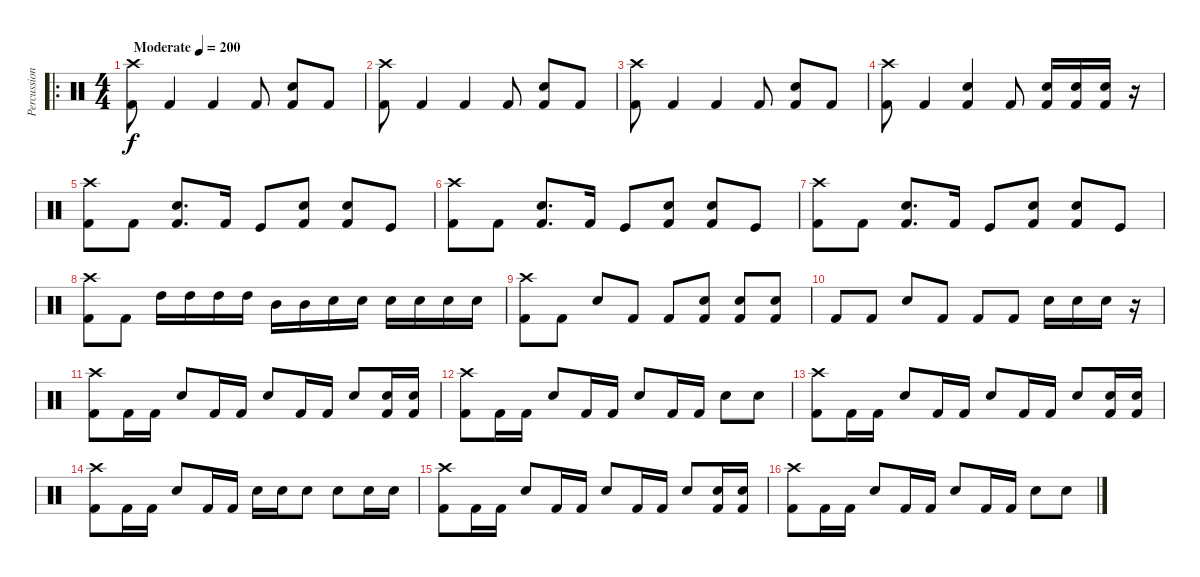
\track ("Percussion" "Percussion") {instrument percussion}
\staff {score}
\articulation defaults
\ro
\ts (4 4)
\tempo (200 "Moderate")
\clef neutral
\ks c
("Kick (hit) 2" "Crash high (hit)").8{dy f} "Kick (hit) 2".4 "Kick (hit) 2".4 "Kick (hit) 2".8 ("Kick (hit) 2" "Electric Snare (hit)").8 "Kick (hit) 2".8 |
("Kick (hit) 2" "Crash high (hit)").8 "Kick (hit) 2".4 "Kick (hit) 2".4 "Kick (hit) 2".8 ("Kick (hit) 2" "Electric Snare (hit)").8 "Kick (hit) 2".8 |
("Kick (hit) 2" "Crash high (hit)").8 "Kick (hit) 2".4 "Kick (hit) 2".4 "Kick (hit) 2".8 ("Kick (hit) 2" "Electric Snare (hit)").8 "Kick (hit) 2".8 |
("Kick (hit) 2" "Crash high (hit)").8 "Kick (hit) 2".4 ("Kick (hit) 2" "Electric Snare (hit)").4 "Kick (hit) 2".8 ("Kick (hit) 2" "Electric Snare (hit)").16 ("Kick (hit) 2" "Electric Snare (hit)").16 ("Kick (hit) 2" "Electric Snare (hit)").16 r.16 |
("Kick (hit) 2" "Crash high (hit)").8 "Kick (hit) 2".8 ("Kick (hit) 2" "Electric Snare (hit)").8{d} "Kick (hit) 2".16 "Kick (hit)".8 ("Kick (hit) 2" "Electric Snare (hit)").8 ("Kick (hit) 2" "Electric Snare (hit)").8 "Kick (hit)".8 |
("Kick (hit) 2" "Crash high (hit)").8 "Kick (hit) 2".8 ("Kick (hit) 2" "Electric Snare (hit)").8{d} "Kick (hit) 2".16 "Kick (hit)".8 ("Kick (hit) 2" "Electric Snare (hit)").8 ("Kick (hit) 2" "Electric Snare (hit)").8 "Kick (hit)".8 |
("Kick (hit) 2" "Crash high (hit)").8 "Kick (hit) 2".8 ("Kick (hit) 2" "Electric Snare (hit)").8{d} "Kick (hit) 2".16 "Kick (hit)".8 ("Kick (hit) 2" "Electric Snare (hit)").8 ("Kick (hit) 2" "Electric Snare (hit)").8 "Kick (hit)".8 |
("Kick (hit) 2" "Crash high (hit)").8 "Kick (hit) 2".8 "High Tom (hit)".16 "High Tom (hit)".16 "High Tom (hit)".16 "High Tom (hit)".16 "Mid Tom (hit)".16 "Mid Tom (hit)".16 "Electric Snare (hit)".16 "Electric Snare (hit)".16 "Electric Snare (hit)".16 "Electric Snare (hit)".16 "Electric Snare (hit)".16 "Electric Snare (hit)".16 |
("Kick (hit) 2" "Crash high (hit)").8 "Kick (hit) 2".8 "Electric Snare (hit)".8 "Kick (hit) 2".8 "Kick (hit) 2".8 ("Kick (hit) 2" "Electric Snare (hit)").8 ("Kick (hit) 2" "Electric Snare (hit)").8 ("Kick (hit) 2" "Electric Snare (hit)").8 |
"Kick (hit) 2".8 "Kick (hit) 2".8 "Electric Snare (hit)".8 "Kick (hit) 2".8 "Kick (hit) 2".8 "Kick (hit) 2".8 "Electric Snare (hit)".16 "Electric Snare (hit)".16 "Electric Snare (hit)".16 r.16 |
("Kick (hit) 2" "Crash high (hit)").8 "Kick (hit) 2".16 "Kick (hit) 2".16 "Electric Snare (hit)".8 "Kick (hit) 2".16 "Kick (hit) 2".16 "Electric Snare (hit)".8 "Kick (hit) 2".16 "Kick (hit) 2".16 "Electric Snare (hit)".8 ("Kick (hit) 2" "Electric Snare (hit)").16 ("Kick (hit) 2" "Electric Snare (hit)").16 |
("Kick (hit) 2" "Crash high (hit)").8 "Kick (hit) 2".16 "Kick (hit) 2".16 "Electric Snare (hit)".8 "Kick (hit) 2".16 "Kick (hit) 2".16 "Electric Snare (hit)".8 "Kick (hit) 2".16 "Kick (hit) 2".16 "Electric Snare (hit)".8 "Electric Snare (hit)".8 |
("Kick (hit) 2" "Crash high (hit)").8 "Kick (hit) 2".16 "Kick (hit) 2".16 "Electric Snare (hit)".8 "Kick (hit) 2".16 "Kick (hit) 2".16 "Electric Snare (hit)".8 "Kick (hit) 2".16 "Kick (hit) 2".16 "Electric Snare (hit)".8 ("Kick (hit) 2" "Electric Snare (hit)").16 ("Kick (hit) 2" "Electric Snare (hit)").16 |
("Kick (hit) 2" "Crash high (hit)").8 "Kick (hit) 2".16 "Kick (hit) 2".16 "Electric Snare (hit)".8 "Kick (hit) 2".16 "Kick (hit) 2".16 "Electric Snare (hit)".16 "Electric Snare (hit)".16 "Electric Snare (hit)".8 "Electric Snare (hit)".8 "Electric Snare (hit)".16 "Electric Snare (hit)".16 |
("Kick (hit) 2" "Crash high (hit)").8 "Kick (hit) 2".16 "Kick (hit) 2".16 "Electric Snare (hit)".8 "Kick (hit) 2".16 "Kick (hit) 2".16 "Electric Snare (hit)".8 "Kick (hit) 2".16 "Kick (hit) 2".16 "Electric Snare (hit)".8 ("Kick (hit) 2" "Electric Snare (hit)").16 ("Kick (hit) 2" "Electric Snare (hit)").16 |
("Kick (hit) 2" "Crash high (hit)").8 "Kick (hit) 2".16 "Kick (hit) 2".16 "Electric Snare (hit)".8 "Kick (hit) 2".16 "Kick (hit) 2".16 "Electric Snare (hit)".8 "Kick (hit) 2".16 "Kick (hit) 2".16 "Electric Snare (hit)".8 "Electric Snare (hit)".8
